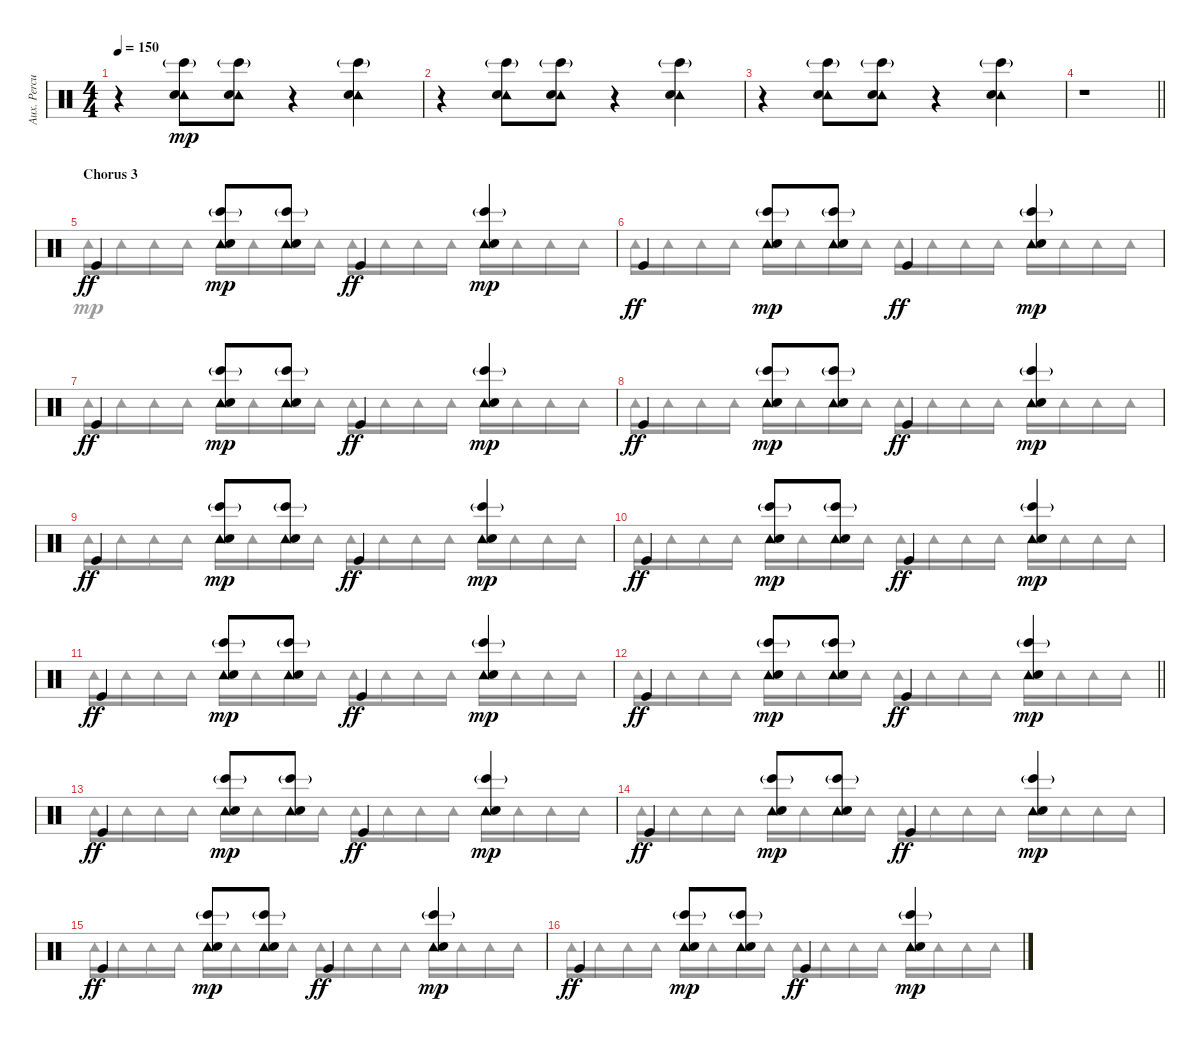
\track ("Aux. Percussion" "Aux. Percu") {instrument percussion}
\staff {score}
\articulation defaults
\voice
\ts (4 4)
\tempo 150
\clef neutral
\ks c
r.4{dy mp} ("Tambourine (hit)" "Hand Clap (hit)" "Bongo High (hit)"{g}).8 ("Tambourine (hit)" "Hand Clap (hit)" "Bongo High (hit)"{g}).8 r.4 ("Tambourine (hit)" "Hand Clap (hit)" "Bongo High (hit)"{g}).4 |
r.4 ("Tambourine (hit)" "Hand Clap (hit)" "Bongo High (hit)"{g}).8 ("Tambourine (hit)" "Hand Clap (hit)" "Bongo High (hit)"{g}).8 r.4 ("Tambourine (hit)" "Hand Clap (hit)" "Bongo High (hit)"{g}).4 |
r.4 ("Tambourine (hit)" "Hand Clap (hit)" "Bongo High (hit)"{g}).8 ("Tambourine (hit)" "Hand Clap (hit)" "Bongo High (hit)"{g}).8 r.4 ("Tambourine (hit)" "Hand Clap (hit)" "Bongo High (hit)"{g}).4 |
\barLineRight lightlight
r.1 |
\section ("" "Chorus 3")
"Kick (hit)".4{dy ff} ("Tambourine (hit)" "Hand Clap (hit)" "Bongo High (hit)"{g}).8{dy mp} ("Tambourine (hit)" "Hand Clap (hit)" "Bongo High (hit)"{g}).8 "Kick (hit)".4{dy ff} ("Tambourine (hit)" "Hand Clap (hit)" "Bongo High (hit)"{g}).4{dy mp} |
"Kick (hit)".4{dy ff} ("Tambourine (hit)" "Hand Clap (hit)" "Bongo High (hit)"{g}).8{dy mp} ("Tambourine (hit)" "Hand Clap (hit)" "Bongo High (hit)"{g}).8 "Kick (hit)".4{dy ff} ("Tambourine (hit)" "Hand Clap (hit)" "Bongo High (hit)"{g}).4{dy mp} |
"Kick (hit)".4{dy ff} ("Tambourine (hit)" "Hand Clap (hit)" "Bongo High (hit)"{g}).8{dy mp} ("Tambourine (hit)" "Hand Clap (hit)" "Bongo High (hit)"{g}).8 "Kick (hit)".4{dy ff} ("Tambourine (hit)" "Hand Clap (hit)" "Bongo High (hit)"{g}).4{dy mp} |
"Kick (hit)".4{dy ff} ("Tambourine (hit)" "Hand Clap (hit)" "Bongo High (hit)"{g}).8{dy mp} ("Tambourine (hit)" "Hand Clap (hit)" "Bongo High (hit)"{g}).8 "Kick (hit)".4{dy ff} ("Tambourine (hit)" "Hand Clap (hit)" "Bongo High (hit)"{g}).4{dy mp} |
"Kick (hit)".4{dy ff} ("Tambourine (hit)" "Hand Clap (hit)" "Bongo High (hit)"{g}).8{dy mp} ("Tambourine (hit)" "Hand Clap (hit)" "Bongo High (hit)"{g}).8 "Kick (hit)".4{dy ff} ("Tambourine (hit)" "Hand Clap (hit)" "Bongo High (hit)"{g}).4{dy mp} |
"Kick (hit)".4{dy ff} ("Tambourine (hit)" "Hand Clap (hit)" "Bongo High (hit)"{g}).8{dy mp} ("Tambourine (hit)" "Hand Clap (hit)" "Bongo High (hit)"{g}).8 "Kick (hit)".4{dy ff} ("Tambourine (hit)" "Hand Clap (hit)" "Bongo High (hit)"{g}).4{dy mp} |
"Kick (hit)".4{dy ff} ("Tambourine (hit)" "Hand Clap (hit)" "Bongo High (hit)"{g}).8{dy mp} ("Tambourine (hit)" "Hand Clap (hit)" "Bongo High (hit)"{g}).8 "Kick (hit)".4{dy ff} ("Tambourine (hit)" "Hand Clap (hit)" "Bongo High (hit)"{g}).4{dy mp} |
\barLineRight lightlight "Kick (hit)".4{dy ff}
("Tambourine (hit)" "Hand Clap (hit)" "Bongo High (hit)"{g}).8{dy mp} ("Tambourine (hit)" "Hand Clap (hit)" "Bongo High (hit)"{g}).8 "Kick (hit)".4{dy ff} ("Tambourine (hit)" "Hand Clap (hit)" "Bongo High (hit)"{g}).4{dy mp} |
"Kick (hit)".4{dy ff} ("Tambourine (hit)" "Hand Clap (hit)" "Bongo High (hit)"{g}).8{dy mp} ("Tambourine (hit)" "Hand Clap (hit)" "Bongo High (hit)"{g}).8 "Kick (hit)".4{dy ff} ("Tambourine (hit)" "Hand Clap (hit)" "Bongo High (hit)"{g}).4{dy mp} |
"Kick (hit)".4{dy ff} ("Tambourine (hit)" "Hand Clap (hit)" "Bongo High (hit)"{g}).8{dy mp} ("Tambourine (hit)" "Hand Clap (hit)" "Bongo High (hit)"{g}).8 "Kick (hit)".4{dy ff} ("Tambourine (hit)" "Hand Clap (hit)" "Bongo High (hit)"{g}).4{dy mp} |
"Kick (hit)".4{dy ff} ("Tambourine (hit)" "Hand Clap (hit)" "Bongo High (hit)"{g}).8{dy mp} ("Tambourine (hit)" "Hand Clap (hit)" "Bongo High (hit)"{g}).8 "Kick (hit)".4{dy ff} ("Tambourine (hit)" "Hand Clap (hit)" "Bongo High (hit)"{g}).4{dy mp} |
"Kick (hit)".4{dy ff} ("Tambourine (hit)" "Hand Clap (hit)" "Bongo High (hit)"{g}).8{dy mp} ("Tambourine (hit)" "Hand Clap (hit)" "Bongo High (hit)"{g}).8 "Kick (hit)".4{dy ff} ("Tambourine (hit)" "Hand Clap (hit)" "Bongo High (hit)"{g}).4{dy mp}
\voice
\clef neutral
\ottava regular
\simile none
\ks c
|
|
|
\barLineRight lightlight
|
"Tambourine (hit)".16 "Tambourine (hit)".16 "Tambourine (hit)".16 "Tambourine (hit)".16 "Tambourine (hit)".16 "Tambourine (hit)".16 "Tambourine (hit)".16 "Tambourine (hit)".16 "Tambourine (hit)".16 "Tambourine (hit)".16 "Tambourine (hit)".16 "Tambourine (hit)".16 "Tambourine (hit)".16 "Tambourine (hit)".16 "Tambourine (hit)".16 "Tambourine (hit)".16 |
"Tambourine (hit)".16 "Tambourine (hit)".16 "Tambourine (hit)".16 "Tambourine (hit)".16 "Tambourine (hit)".16 "Tambourine (hit)".16 "Tambourine (hit)".16 "Tambourine (hit)".16 "Tambourine (hit)".16 "Tambourine (hit)".16 "Tambourine (hit)".16 "Tambourine (hit)".16 "Tambourine (hit)".16 "Tambourine (hit)".16 "Tambourine (hit)".16 "Tambourine (hit)".16 |
"Tambourine (hit)".16 "Tambourine (hit)".16 "Tambourine (hit)".16 "Tambourine (hit)".16 "Tambourine (hit)".16 "Tambourine (hit)".16 "Tambourine (hit)".16 "Tambourine (hit)".16 "Tambourine (hit)".16 "Tambourine (hit)".16 "Tambourine (hit)".16 "Tambourine (hit)".16 "Tambourine (hit)".16 "Tambourine (hit)".16 "Tambourine (hit)".16 "Tambourine (hit)".16 |
"Tambourine (hit)".16 "Tambourine (hit)".16 "Tambourine (hit)".16 "Tambourine (hit)".16 "Tambourine (hit)".16 "Tambourine (hit)".16 "Tambourine (hit)".16 "Tambourine (hit)".16 "Tambourine (hit)".16 "Tambourine (hit)".16 "Tambourine (hit)".16 "Tambourine (hit)".16 "Tambourine (hit)".16 "Tambourine (hit)".16 "Tambourine (hit)".16 "Tambourine (hit)".16 |
"Tambourine (hit)".16 "Tambourine (hit)".16 "Tambourine (hit)".16 "Tambourine (hit)".16 "Tambourine (hit)".16 "Tambourine (hit)".16 "Tambourine (hit)".16 "Tambourine (hit)".16 "Tambourine (hit)".16 "Tambourine (hit)".16 "Tambourine (hit)".16 "Tambourine (hit)".16 "Tambourine (hit)".16 "Tambourine (hit)".16 "Tambourine (hit)".16 "Tambourine (hit)".16 |
"Tambourine (hit)".16 "Tambourine (hit)".16 "Tambourine (hit)".16 "Tambourine (hit)".16 "Tambourine (hit)".16 "Tambourine (hit)".16 "Tambourine (hit)".16 "Tambourine (hit)".16 "Tambourine (hit)".16 "Tambourine (hit)".16 "Tambourine (hit)".16 "Tambourine (hit)".16 "Tambourine (hit)".16 "Tambourine (hit)".16 "Tambourine (hit)".16 "Tambourine (hit)".16 |
"Tambourine (hit)".16 "Tambourine (hit)".16 "Tambourine (hit)".16 "Tambourine (hit)".16 "Tambourine (hit)".16 "Tambourine (hit)".16 "Tambourine (hit)".16 "Tambourine (hit)".16 "Tambourine (hit)".16 "Tambourine (hit)".16 "Tambourine (hit)".16 "Tambourine (hit)".16 "Tambourine (hit)".16 "Tambourine (hit)".16 "Tambourine (hit)".16 "Tambourine (hit)".16 |
\barLineRight lightlight "Tambourine (hit)".16 "Tambourine (hit)".16 "Tambourine (hit)".16 "Tambourine (hit)".16 "Tambourine (hit)".16 "Tambourine (hit)".16 "Tambourine (hit)".16 "Tambourine (hit)".16 "Tambourine (hit)".16 "Tambourine (hit)".16 "Tambourine (hit)".16 "Tambourine (hit)".16 "Tambourine (hit)".16 "Tambourine (hit)".16 "Tambourine (hit)".16 "Tambourine (hit)".16
|
"Tambourine (hit)".16 "Tambourine (hit)".16 "Tambourine (hit)".16 "Tambourine (hit)".16 "Tambourine (hit)".16 "Tambourine (hit)".16 "Tambourine (hit)".16 "Tambourine (hit)".16 "Tambourine (hit)".16 "Tambourine (hit)".16 "Tambourine (hit)".16 "Tambourine (hit)".16 "Tambourine (hit)".16 "Tambourine (hit)".16 "Tambourine (hit)".16 "Tambourine (hit)".16 |
"Tambourine (hit)".16 "Tambourine (hit)".16 "Tambourine (hit)".16 "Tambourine (hit)".16 "Tambourine (hit)".16 "Tambourine (hit)".16 "Tambourine (hit)".16 "Tambourine (hit)".16 "Tambourine (hit)".16 "Tambourine (hit)".16 "Tambourine (hit)".16 "Tambourine (hit)".16 "Tambourine (hit)".16 "Tambourine (hit)".16 "Tambourine (hit)".16 "Tambourine (hit)".16 |
"Tambourine (hit)".16 "Tambourine (hit)".16 "Tambourine (hit)".16 "Tambourine (hit)".16 "Tambourine (hit)".16 "Tambourine (hit)".16 "Tambourine (hit)".16 "Tambourine (hit)".16 "Tambourine (hit)".16 "Tambourine (hit)".16 "Tambourine (hit)".16 "Tambourine (hit)".16 "Tambourine (hit)".16 "Tambourine (hit)".16 "Tambourine (hit)".16 "Tambourine (hit)".16 |
"Tambourine (hit)".16 "Tambourine (hit)".16 "Tambourine (hit)".16 "Tambourine (hit)".16 "Tambourine (hit)".16 "Tambourine (hit)".16 "Tambourine (hit)".16 "Tambourine (hit)".16 "Tambourine (hit)".16 "Tambourine (hit)".16 "Tambourine (hit)".16 "Tambourine (hit)".16 "Tambourine (hit)".16 "Tambourine (hit)".16 "Tambourine (hit)".16 "Tambourine (hit)".16
